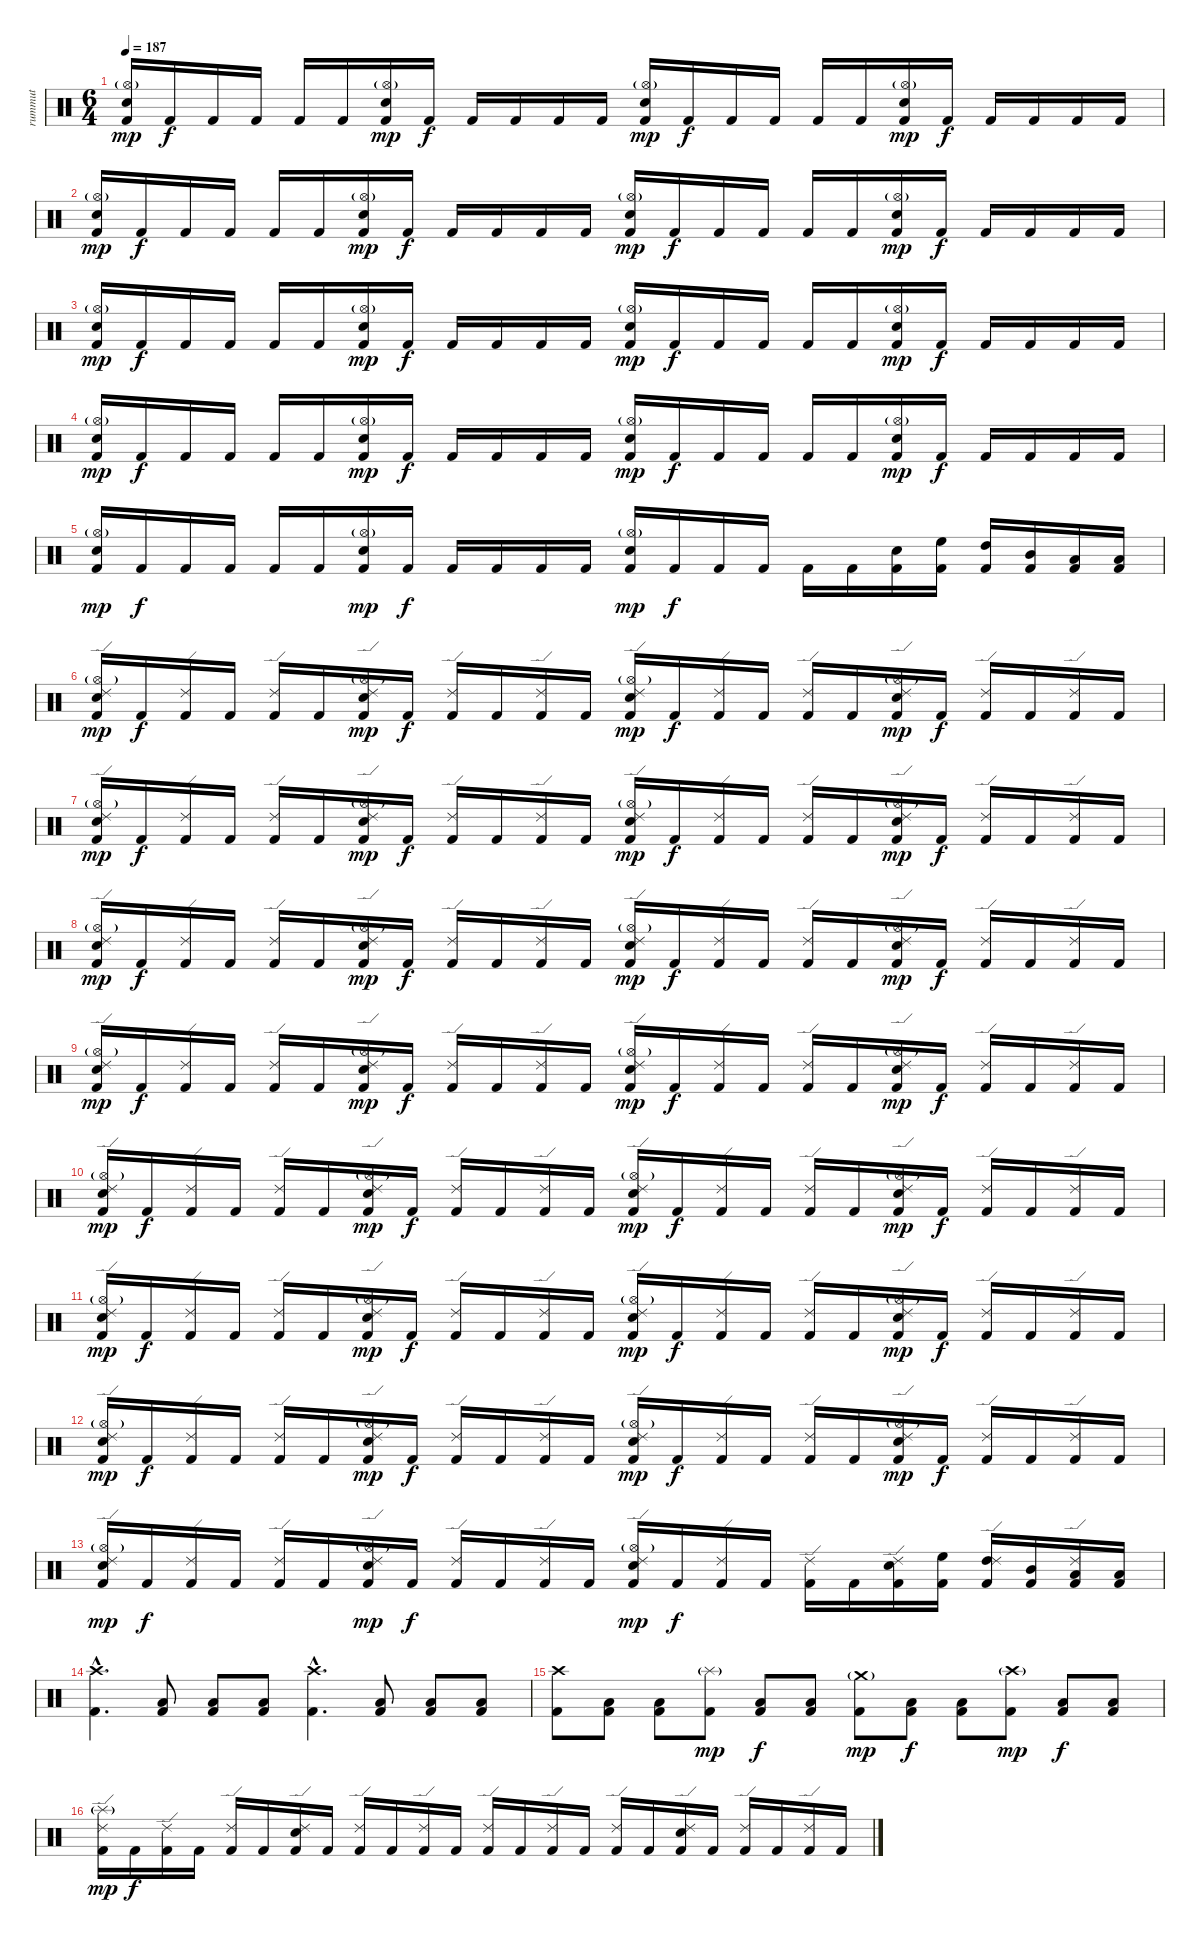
\track ("rummut" "rummut") {instrument percussion}
\staff {score}
\articulation defaults
\ts (6 4)
\tempo 187
\clef neutral
\ks c
("Kick (hit) 2" "Hi-Hat (open)"{g} "Snare (hit) 2").16{dy mp} "Kick (hit) 2".16{dy f} "Kick (hit) 2".16 "Kick (hit) 2".16 "Kick (hit) 2".16 "Kick (hit) 2".16 ("Kick (hit) 2" "Hi-Hat (open)"{g} "Snare (hit) 2").16{dy mp} "Kick (hit) 2".16{dy f} "Kick (hit) 2".16 "Kick (hit) 2".16 "Kick (hit) 2".16 "Kick (hit) 2".16 ("Kick (hit) 2" "Hi-Hat (open)"{g} "Snare (hit) 2").16{dy mp} "Kick (hit) 2".16{dy f} "Kick (hit) 2".16 "Kick (hit) 2".16 "Kick (hit) 2".16 "Kick (hit) 2".16 ("Kick (hit) 2" "Hi-Hat (open)"{g} "Snare (hit) 2").16{dy mp} "Kick (hit) 2".16{dy f} "Kick (hit) 2".16 "Kick (hit) 2".16 "Kick (hit) 2".16 "Kick (hit) 2".16 |
("Kick (hit) 2" "Hi-Hat (open)"{g} "Snare (hit) 2").16{dy mp} "Kick (hit) 2".16{dy f} "Kick (hit) 2".16 "Kick (hit) 2".16 "Kick (hit) 2".16 "Kick (hit) 2".16 ("Kick (hit) 2" "Hi-Hat (open)"{g} "Snare (hit) 2").16{dy mp} "Kick (hit) 2".16{dy f} "Kick (hit) 2".16 "Kick (hit) 2".16 "Kick (hit) 2".16 "Kick (hit) 2".16 ("Kick (hit) 2" "Hi-Hat (open)"{g} "Snare (hit) 2").16{dy mp} "Kick (hit) 2".16{dy f} "Kick (hit) 2".16 "Kick (hit) 2".16 "Kick (hit) 2".16 "Kick (hit) 2".16 ("Kick (hit) 2" "Hi-Hat (open)"{g} "Snare (hit) 2").16{dy mp} "Kick (hit) 2".16{dy f} "Kick (hit) 2".16 "Kick (hit) 2".16 "Kick (hit) 2".16 "Kick (hit) 2".16 |
("Kick (hit) 2" "Hi-Hat (open)"{g} "Snare (hit) 2").16{dy mp} "Kick (hit) 2".16{dy f} "Kick (hit) 2".16 "Kick (hit) 2".16 "Kick (hit) 2".16 "Kick (hit) 2".16 ("Kick (hit) 2" "Hi-Hat (open)"{g} "Snare (hit) 2").16{dy mp} "Kick (hit) 2".16{dy f} "Kick (hit) 2".16 "Kick (hit) 2".16 "Kick (hit) 2".16 "Kick (hit) 2".16 ("Kick (hit) 2" "Hi-Hat (open)"{g} "Snare (hit) 2").16{dy mp} "Kick (hit) 2".16{dy f} "Kick (hit) 2".16 "Kick (hit) 2".16 "Kick (hit) 2".16 "Kick (hit) 2".16 ("Kick (hit) 2" "Hi-Hat (open)"{g} "Snare (hit) 2").16{dy mp} "Kick (hit) 2".16{dy f} "Kick (hit) 2".16 "Kick (hit) 2".16 "Kick (hit) 2".16 "Kick (hit) 2".16 |
("Kick (hit) 2" "Hi-Hat (open)"{g} "Snare (hit) 2").16{dy mp} "Kick (hit) 2".16{dy f} "Kick (hit) 2".16 "Kick (hit) 2".16 "Kick (hit) 2".16 "Kick (hit) 2".16 ("Kick (hit) 2" "Hi-Hat (open)"{g} "Snare (hit) 2").16{dy mp} "Kick (hit) 2".16{dy f} "Kick (hit) 2".16 "Kick (hit) 2".16 "Kick (hit) 2".16 "Kick (hit) 2".16 ("Kick (hit) 2" "Hi-Hat (open)"{g} "Snare (hit) 2").16{dy mp} "Kick (hit) 2".16{dy f} "Kick (hit) 2".16 "Kick (hit) 2".16 "Kick (hit) 2".16 "Kick (hit) 2".16 ("Kick (hit) 2" "Hi-Hat (open)"{g} "Snare (hit) 2").16{dy mp} "Kick (hit) 2".16{dy f} "Kick (hit) 2".16 "Kick (hit) 2".16 "Kick (hit) 2".16 "Kick (hit) 2".16 |
("Kick (hit) 2" "Hi-Hat (open)"{g} "Snare (hit) 2").16{dy mp} "Kick (hit) 2".16{dy f} "Kick (hit) 2".16 "Kick (hit) 2".16 "Kick (hit) 2".16 "Kick (hit) 2".16 ("Kick (hit) 2" "Hi-Hat (open)"{g} "Snare (hit) 2").16{dy mp} "Kick (hit) 2".16{dy f} "Kick (hit) 2".16 "Kick (hit) 2".16 "Kick (hit) 2".16 "Kick (hit) 2".16 ("Kick (hit) 2" "Hi-Hat (open)"{g} "Snare (hit) 2").16{dy mp} "Kick (hit) 2".16{dy f} "Kick (hit) 2".16 "Kick (hit) 2".16 "Kick (hit) 2".16 "Kick (hit) 2".16 ("Kick (hit) 2" "Snare (hit) 2").16 ("Kick (hit) 2" "High Floor Tom (hit)").16 ("Kick (hit) 2" "High Tom (hit)").16 ("Kick (hit) 2" "Mid Tom (hit)").16 ("Kick (hit) 2" "Low Tom (hit)").16 ("Kick (hit) 2" "Low Floor Tom (hit)").16 |
("Kick (hit) 2" "Hi-Hat (open)"{g} "Snare (hit) 2" "Ride (edge) 2").16{dy mp} "Kick (hit) 2".16{dy f} ("Kick (hit) 2" "Ride (edge) 2").16 "Kick (hit) 2".16 ("Kick (hit) 2" "Ride (edge) 2").16 "Kick (hit) 2".16 ("Kick (hit) 2" "Hi-Hat (open)"{g} "Snare (hit) 2" "Ride (edge) 2").16{dy mp} "Kick (hit) 2".16{dy f} ("Kick (hit) 2" "Ride (edge) 2").16 "Kick (hit) 2".16 ("Kick (hit) 2" "Ride (edge) 2").16 "Kick (hit) 2".16 ("Kick (hit) 2" "Hi-Hat (open)"{g} "Snare (hit) 2" "Ride (edge) 2").16{dy mp} "Kick (hit) 2".16{dy f} ("Kick (hit) 2" "Ride (edge) 2").16 "Kick (hit) 2".16 ("Kick (hit) 2" "Ride (edge) 2").16 "Kick (hit) 2".16 ("Kick (hit) 2" "Hi-Hat (open)"{g} "Snare (hit) 2" "Ride (edge) 2").16{dy mp} "Kick (hit) 2".16{dy f} ("Kick (hit) 2" "Ride (edge) 2").16 "Kick (hit) 2".16 ("Kick (hit) 2" "Ride (edge) 2").16 "Kick (hit) 2".16 |
("Kick (hit) 2" "Hi-Hat (open)"{g} "Snare (hit) 2" "Ride (edge) 2").16{dy mp} "Kick (hit) 2".16{dy f} ("Kick (hit) 2" "Ride (edge) 2").16 "Kick (hit) 2".16 ("Kick (hit) 2" "Ride (edge) 2").16 "Kick (hit) 2".16 ("Kick (hit) 2" "Hi-Hat (open)"{g} "Snare (hit) 2" "Ride (edge) 2").16{dy mp} "Kick (hit) 2".16{dy f} ("Kick (hit) 2" "Ride (edge) 2").16 "Kick (hit) 2".16 ("Kick (hit) 2" "Ride (edge) 2").16 "Kick (hit) 2".16 ("Kick (hit) 2" "Hi-Hat (open)"{g} "Snare (hit) 2" "Ride (edge) 2").16{dy mp} "Kick (hit) 2".16{dy f} ("Kick (hit) 2" "Ride (edge) 2").16 "Kick (hit) 2".16 ("Kick (hit) 2" "Ride (edge) 2").16 "Kick (hit) 2".16 ("Kick (hit) 2" "Hi-Hat (open)"{g} "Snare (hit) 2" "Ride (edge) 2").16{dy mp} "Kick (hit) 2".16{dy f} ("Kick (hit) 2" "Ride (edge) 2").16 "Kick (hit) 2".16 ("Kick (hit) 2" "Ride (edge) 2").16 "Kick (hit) 2".16 |
("Kick (hit) 2" "Hi-Hat (open)"{g} "Snare (hit) 2" "Ride (edge) 2").16{dy mp} "Kick (hit) 2".16{dy f} ("Kick (hit) 2" "Ride (edge) 2").16 "Kick (hit) 2".16 ("Kick (hit) 2" "Ride (edge) 2").16 "Kick (hit) 2".16 ("Kick (hit) 2" "Hi-Hat (open)"{g} "Snare (hit) 2" "Ride (edge) 2").16{dy mp} "Kick (hit) 2".16{dy f} ("Kick (hit) 2" "Ride (edge) 2").16 "Kick (hit) 2".16 ("Kick (hit) 2" "Ride (edge) 2").16 "Kick (hit) 2".16 ("Kick (hit) 2" "Hi-Hat (open)"{g} "Snare (hit) 2" "Ride (edge) 2").16{dy mp} "Kick (hit) 2".16{dy f} ("Kick (hit) 2" "Ride (edge) 2").16 "Kick (hit) 2".16 ("Kick (hit) 2" "Ride (edge) 2").16 "Kick (hit) 2".16 ("Kick (hit) 2" "Hi-Hat (open)"{g} "Snare (hit) 2" "Ride (edge) 2").16{dy mp} "Kick (hit) 2".16{dy f} ("Kick (hit) 2" "Ride (edge) 2").16 "Kick (hit) 2".16 ("Kick (hit) 2" "Ride (edge) 2").16 "Kick (hit) 2".16 |
("Kick (hit) 2" "Hi-Hat (open)"{g} "Snare (hit) 2" "Ride (edge) 2").16{dy mp} "Kick (hit) 2".16{dy f} ("Kick (hit) 2" "Ride (edge) 2").16 "Kick (hit) 2".16 ("Kick (hit) 2" "Ride (edge) 2").16 "Kick (hit) 2".16 ("Kick (hit) 2" "Hi-Hat (open)"{g} "Snare (hit) 2" "Ride (edge) 2").16{dy mp} "Kick (hit) 2".16{dy f} ("Kick (hit) 2" "Ride (edge) 2").16 "Kick (hit) 2".16 ("Kick (hit) 2" "Ride (edge) 2").16 "Kick (hit) 2".16 ("Kick (hit) 2" "Hi-Hat (open)"{g} "Snare (hit) 2" "Ride (edge) 2").16{dy mp} "Kick (hit) 2".16{dy f} ("Kick (hit) 2" "Ride (edge) 2").16 "Kick (hit) 2".16 ("Kick (hit) 2" "Ride (edge) 2").16 "Kick (hit) 2".16 ("Kick (hit) 2" "Hi-Hat (open)"{g} "Snare (hit) 2" "Ride (edge) 2").16{dy mp} "Kick (hit) 2".16{dy f} ("Kick (hit) 2" "Ride (edge) 2").16 "Kick (hit) 2".16 ("Kick (hit) 2" "Ride (edge) 2").16 "Kick (hit) 2".16 |
("Kick (hit) 2" "Hi-Hat (open)"{g} "Snare (hit) 2" "Ride (edge) 2").16{dy mp} "Kick (hit) 2".16{dy f} ("Kick (hit) 2" "Ride (edge) 2").16 "Kick (hit) 2".16 ("Kick (hit) 2" "Ride (edge) 2").16 "Kick (hit) 2".16 ("Kick (hit) 2" "Hi-Hat (open)"{g} "Snare (hit) 2" "Ride (edge) 2").16{dy mp} "Kick (hit) 2".16{dy f} ("Kick (hit) 2" "Ride (edge) 2").16 "Kick (hit) 2".16 ("Kick (hit) 2" "Ride (edge) 2").16 "Kick (hit) 2".16 ("Kick (hit) 2" "Hi-Hat (open)"{g} "Snare (hit) 2" "Ride (edge) 2").16{dy mp} "Kick (hit) 2".16{dy f} ("Kick (hit) 2" "Ride (edge) 2").16 "Kick (hit) 2".16 ("Kick (hit) 2" "Ride (edge) 2").16 "Kick (hit) 2".16 ("Kick (hit) 2" "Hi-Hat (open)"{g} "Snare (hit) 2" "Ride (edge) 2").16{dy mp} "Kick (hit) 2".16{dy f} ("Kick (hit) 2" "Ride (edge) 2").16 "Kick (hit) 2".16 ("Kick (hit) 2" "Ride (edge) 2").16 "Kick (hit) 2".16 |
("Kick (hit) 2" "Hi-Hat (open)"{g} "Snare (hit) 2" "Ride (edge) 2").16{dy mp} "Kick (hit) 2".16{dy f} ("Kick (hit) 2" "Ride (edge) 2").16 "Kick (hit) 2".16 ("Kick (hit) 2" "Ride (edge) 2").16 "Kick (hit) 2".16 ("Kick (hit) 2" "Hi-Hat (open)"{g} "Snare (hit) 2" "Ride (edge) 2").16{dy mp} "Kick (hit) 2".16{dy f} ("Kick (hit) 2" "Ride (edge) 2").16 "Kick (hit) 2".16 ("Kick (hit) 2" "Ride (edge) 2").16 "Kick (hit) 2".16 ("Kick (hit) 2" "Hi-Hat (open)"{g} "Snare (hit) 2" "Ride (edge) 2").16{dy mp} "Kick (hit) 2".16{dy f} ("Kick (hit) 2" "Ride (edge) 2").16 "Kick (hit) 2".16 ("Kick (hit) 2" "Ride (edge) 2").16 "Kick (hit) 2".16 ("Kick (hit) 2" "Hi-Hat (open)"{g} "Snare (hit) 2" "Ride (edge) 2").16{dy mp} "Kick (hit) 2".16{dy f} ("Kick (hit) 2" "Ride (edge) 2").16 "Kick (hit) 2".16 ("Kick (hit) 2" "Ride (edge) 2").16 "Kick (hit) 2".16 |
("Kick (hit) 2" "Hi-Hat (open)"{g} "Snare (hit) 2" "Ride (edge) 2").16{dy mp} "Kick (hit) 2".16{dy f} ("Kick (hit) 2" "Ride (edge) 2").16 "Kick (hit) 2".16 ("Kick (hit) 2" "Ride (edge) 2").16 "Kick (hit) 2".16 ("Kick (hit) 2" "Hi-Hat (open)"{g} "Snare (hit) 2" "Ride (edge) 2").16{dy mp} "Kick (hit) 2".16{dy f} ("Kick (hit) 2" "Ride (edge) 2").16 "Kick (hit) 2".16 ("Kick (hit) 2" "Ride (edge) 2").16 "Kick (hit) 2".16 ("Kick (hit) 2" "Hi-Hat (open)"{g} "Snare (hit) 2" "Ride (edge) 2").16{dy mp} "Kick (hit) 2".16{dy f} ("Kick (hit) 2" "Ride (edge) 2").16 "Kick (hit) 2".16 ("Kick (hit) 2" "Ride (edge) 2").16 "Kick (hit) 2".16 ("Kick (hit) 2" "Hi-Hat (open)"{g} "Snare (hit) 2" "Ride (edge) 2").16{dy mp} "Kick (hit) 2".16{dy f} ("Kick (hit) 2" "Ride (edge) 2").16 "Kick (hit) 2".16 ("Kick (hit) 2" "Ride (edge) 2").16 "Kick (hit) 2".16 |
("Kick (hit) 2" "Hi-Hat (open)"{g} "Snare (hit) 2" "Ride (edge) 2").16{dy mp} "Kick (hit) 2".16{dy f} ("Kick (hit) 2" "Ride (edge) 2").16 "Kick (hit) 2".16 ("Kick (hit) 2" "Ride (edge) 2").16 "Kick (hit) 2".16 ("Kick (hit) 2" "Hi-Hat (open)"{g} "Snare (hit) 2" "Ride (edge) 2").16{dy mp} "Kick (hit) 2".16{dy f} ("Kick (hit) 2" "Ride (edge) 2").16 "Kick (hit) 2".16 ("Kick (hit) 2" "Ride (edge) 2").16 "Kick (hit) 2".16 ("Kick (hit) 2" "Hi-Hat (open)"{g} "Snare (hit) 2" "Ride (edge) 2").16{dy mp} "Kick (hit) 2".16{dy f} ("Kick (hit) 2" "Ride (edge) 2").16 "Kick (hit) 2".16 ("Kick (hit) 2" "Ride (edge) 2").16 "Kick (hit) 2".16 ("Kick (hit) 2" "Snare (hit) 2" "Ride (edge) 2").16 ("Kick (hit) 2" "High Floor Tom (hit)").16 ("Kick (hit) 2" "High Tom (hit)" "Ride (edge) 2").16 ("Kick (hit) 2" "Mid Tom (hit)").16 ("Kick (hit) 2" "Low Tom (hit)" "Ride (edge) 2").16 ("Kick (hit) 2" "Low Floor Tom (hit)").16 |
("Kick (hit) 2"{hac} "Crash high (hit)"{hac}).4{d} ("Kick (hit) 2" "Low Tom (hit)").8 ("Kick (hit) 2" "Low Tom (hit)").8 ("Kick (hit) 2" "Low Tom (hit)").8 ("Kick (hit) 2"{hac} "Crash high (hit)"{hac}).4{d} ("Kick (hit) 2" "Low Tom (hit)").8 ("Kick (hit) 2" "Low Tom (hit)").8 ("Kick (hit) 2" "Low Tom (hit)").8 |
("Kick (hit) 2" "Crash high (hit)").8 ("Kick (hit) 2" "Low Tom (hit)").8 ("Kick (hit) 2" "Low Tom (hit)").8 ("Kick (hit) 2" "Splash (hit)"{g}).8{dy mp} ("Kick (hit) 2" "Low Tom (hit)").8{dy f} ("Kick (hit) 2" "Low Tom (hit)").8 ("Kick (hit) 2" "Crash medium (hit)"{g}).8{dy mp} ("Kick (hit) 2" "Low Tom (hit)").8{dy f} ("Kick (hit) 2" "Low Tom (hit)").8 ("Kick (hit) 2" "Crash high (hit)"{g}).8{dy mp} ("Kick (hit) 2" "Low Tom (hit)").8{dy f} ("Kick (hit) 2" "Low Tom (hit)").8 |
("Kick (hit) 2" "Ride (edge) 2" "Splash (hit)"{g}).16{dy mp} "Kick (hit) 2".16{dy f} ("Kick (hit) 2" "Ride (edge) 2").16 "Kick (hit) 2".16 ("Kick (hit) 2" "Ride (edge) 2").16 "Kick (hit) 2".16 ("Kick (hit) 2" "Ride (edge) 2" "Snare (hit) 2").16 "Kick (hit) 2".16 ("Kick (hit) 2" "Ride (edge) 2").16 "Kick (hit) 2".16 ("Kick (hit) 2" "Ride (edge) 2").16 "Kick (hit) 2".16 ("Kick (hit) 2" "Ride (edge) 2").16 "Kick (hit) 2".16 ("Kick (hit) 2" "Ride (edge) 2").16 "Kick (hit) 2".16 ("Kick (hit) 2" "Ride (edge) 2").16 "Kick (hit) 2".16 ("Kick (hit) 2" "Ride (edge) 2" "Snare (hit) 2").16 "Kick (hit) 2".16 ("Kick (hit) 2" "Ride (edge) 2").16 "Kick (hit) 2".16 ("Kick (hit) 2" "Ride (edge) 2").16 "Kick (hit) 2".16
